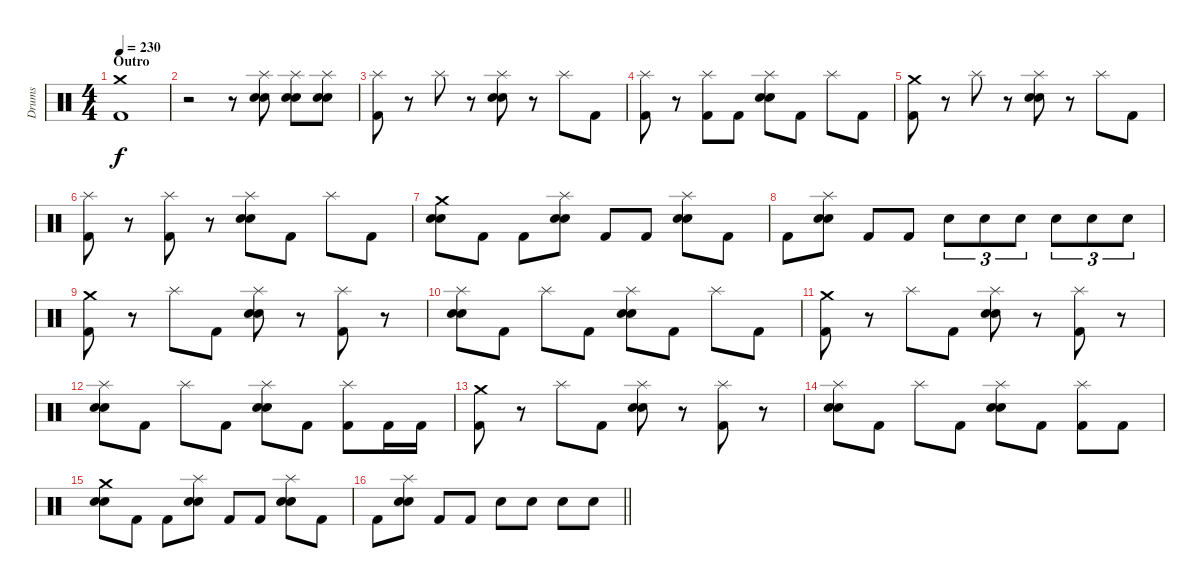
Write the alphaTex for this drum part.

\track ("Drums" "Drums") {instrument percussion}
\staff {score}
\articulation defaults
\ts (4 4)
\section ("" "Outro")
\tempo 230
\clef neutral
\ks c
("Crash medium (hit)" "Kick (hit) 2").1{dy f} |
r.2 r.8 ("Splash (hit)" "Electric Snare (hit)" "Snare (hit) 2").8 ("Splash (hit)" "Electric Snare (hit)" "Snare (hit) 2").8 ("Splash (hit)" "Electric Snare (hit)" "Snare (hit) 2").8 |
("Splash (hit)" "Kick (hit) 2").8 r.8 "Splash (hit)".8 r.8 ("Splash (hit)" "Electric Snare (hit)" "Snare (hit) 2").8 r.8 "Splash (hit)".8 "Kick (hit) 2".8 |
("Splash (hit)" "Kick (hit) 2").8 r.8 ("Splash (hit)" "Kick (hit) 2").8 "Kick (hit) 2".8 ("Splash (hit)" "Electric Snare (hit)" "Snare (hit) 2").8 "Kick (hit) 2".8 "Splash (hit)".8 "Kick (hit) 2".8 |
("Crash medium (hit)" "Kick (hit) 2").8 r.8 "Splash (hit)".8 r.8 ("Splash (hit)" "Electric Snare (hit)" "Snare (hit) 2").8 r.8 "Splash (hit)".8 "Kick (hit) 2".8 |
("Splash (hit)" "Kick (hit) 2").8 r.8 ("Splash (hit)" "Kick (hit) 2").8 r.8 ("Splash (hit)" "Electric Snare (hit)" "Snare (hit) 2").8 "Kick (hit) 2".8 "Splash (hit)".8 "Kick (hit) 2".8 |
("Crash medium (hit)" "Electric Snare (hit)" "Snare (hit) 2").8 "Kick (hit) 2".8 "Kick (hit) 2".8 ("Splash (hit)" "Electric Snare (hit)" "Snare (hit) 2").8 "Kick (hit) 2".8 "Kick (hit) 2".8 ("Splash (hit)" "Electric Snare (hit)" "Snare (hit) 2").8 "Kick (hit) 2".8 |
"Kick (hit) 2".8 ("Splash (hit)" "Electric Snare (hit)" "Snare (hit) 2").8 "Kick (hit) 2".8 "Kick (hit) 2".8 "Electric Snare (hit)".8{tu (3 2)} "Electric Snare (hit)".8{tu (3 2)} "Electric Snare (hit)".8{tu (3 2)} "Electric Snare (hit)".8{tu (3 2)} "Electric Snare (hit)".8{tu (3 2)} "Electric Snare (hit)".8{tu (3 2)} |
("Crash medium (hit)" "Kick (hit) 2").8 r.8 "Splash (hit)".8 "Kick (hit) 2".8 ("Splash (hit)" "Electric Snare (hit)" "Snare (hit) 2").8 r.8 ("Splash (hit)" "Kick (hit) 2").8 r.8 |
("Splash (hit)" "Electric Snare (hit)" "Snare (hit) 2").8 "Kick (hit) 2".8 "Splash (hit)".8 "Kick (hit) 2".8 ("Splash (hit)" "Electric Snare (hit)" "Snare (hit) 2").8 "Kick (hit) 2".8 "Splash (hit)".8 "Kick (hit) 2".8 |
("Crash medium (hit)" "Kick (hit) 2").8 r.8 "Splash (hit)".8 "Kick (hit) 2".8 ("Splash (hit)" "Electric Snare (hit)" "Snare (hit) 2").8 r.8 ("Splash (hit)" "Kick (hit) 2").8 r.8 |
("Splash (hit)" "Electric Snare (hit)" "Snare (hit) 2").8 "Kick (hit) 2".8 "Splash (hit)".8 "Kick (hit) 2".8 ("Splash (hit)" "Electric Snare (hit)" "Snare (hit) 2").8 "Kick (hit) 2".8 ("Splash (hit)" "Kick (hit) 2").8 "Kick (hit) 2".16 "Kick (hit) 2".16 |
("Crash medium (hit)" "Kick (hit) 2").8 r.8 "Splash (hit)".8 "Kick (hit) 2".8 ("Splash (hit)" "Electric Snare (hit)" "Snare (hit) 2").8 r.8 ("Splash (hit)" "Kick (hit) 2").8 r.8 |
("Splash (hit)" "Electric Snare (hit)" "Snare (hit) 2").8 "Kick (hit) 2".8 "Splash (hit)".8 "Kick (hit) 2".8 ("Splash (hit)" "Electric Snare (hit)" "Snare (hit) 2").8 "Kick (hit) 2".8 ("Splash (hit)" "Kick (hit) 2").8 "Kick (hit) 2".8 |
("Crash medium (hit)" "Electric Snare (hit)" "Snare (hit) 2").8 "Kick (hit) 2".8 "Kick (hit) 2".8 ("Splash (hit)" "Electric Snare (hit)" "Snare (hit) 2").8 "Kick (hit) 2".8 "Kick (hit) 2".8 ("Splash (hit)" "Electric Snare (hit)" "Snare (hit) 2").8 "Kick (hit) 2".8 |
\barLineRight lightlight "Kick (hit) 2".8
("Splash (hit)" "Electric Snare (hit)" "Snare (hit) 2").8 "Kick (hit) 2".8 "Kick (hit) 2".8 "Electric Snare (hit)".8 "Electric Snare (hit)".8 "Electric Snare (hit)".8 "Electric Snare (hit)".8
